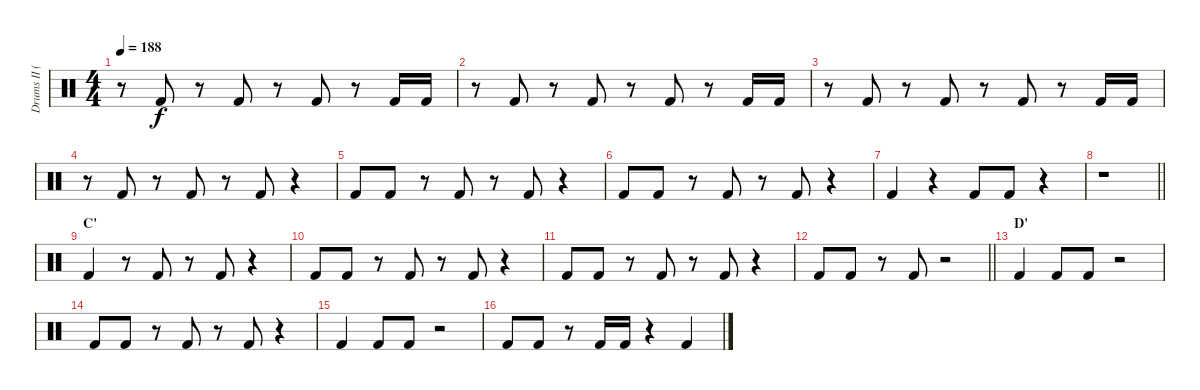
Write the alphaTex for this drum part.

\track ("Drums II (Ruka)" "Drums II (") {instrument percussion}
\staff {score}
\articulation defaults
\ts (4 4)
\tempo 188
\clef neutral
\ks c
r.8{dy f} "Kick (hit) 2".8 r.8 "Kick (hit) 2".8 r.8 "Kick (hit) 2".8 r.8 "Kick (hit) 2".16 "Kick (hit) 2".16 |
r.8 "Kick (hit) 2".8 r.8 "Kick (hit) 2".8 r.8 "Kick (hit) 2".8 r.8 "Kick (hit) 2".16 "Kick (hit) 2".16 |
r.8 "Kick (hit) 2".8 r.8 "Kick (hit) 2".8 r.8 "Kick (hit) 2".8 r.8 "Kick (hit) 2".16 "Kick (hit) 2".16 |
r.8 "Kick (hit) 2".8 r.8 "Kick (hit) 2".8 r.8 "Kick (hit) 2".8 r.4 |
"Kick (hit) 2".8 "Kick (hit) 2".8 r.8 "Kick (hit) 2".8 r.8 "Kick (hit) 2".8 r.4 |
"Kick (hit) 2".8 "Kick (hit) 2".8 r.8 "Kick (hit) 2".8 r.8 "Kick (hit) 2".8 r.4 |
"Kick (hit) 2".4 r.4 "Kick (hit) 2".8 "Kick (hit) 2".8 r.4 |
\barLineRight lightlight
r.1 |
\section ("" "C'")
"Kick (hit) 2".4 r.8 "Kick (hit) 2".8 r.8 "Kick (hit) 2".8 r.4 |
"Kick (hit) 2".8 "Kick (hit) 2".8 r.8 "Kick (hit) 2".8 r.8 "Kick (hit) 2".8 r.4 |
"Kick (hit) 2".8 "Kick (hit) 2".8 r.8 "Kick (hit) 2".8 r.8 "Kick (hit) 2".8 r.4 |
\barLineRight lightlight "Kick (hit) 2".8 "Kick (hit) 2".8
r.8 "Kick (hit) 2".8 r.2 |
\section ("" "D'")
"Kick (hit) 2".4 "Kick (hit) 2".8 "Kick (hit) 2".8 r.2 |
"Kick (hit) 2".8 "Kick (hit) 2".8 r.8 "Kick (hit) 2".8 r.8 "Kick (hit) 2".8 r.4 |
"Kick (hit) 2".4 "Kick (hit) 2".8 "Kick (hit) 2".8 r.2 |
"Kick (hit) 2".8 "Kick (hit) 2".8 r.8 "Kick (hit) 2".16 "Kick (hit) 2".16 r.4 "Kick (hit) 2".4
